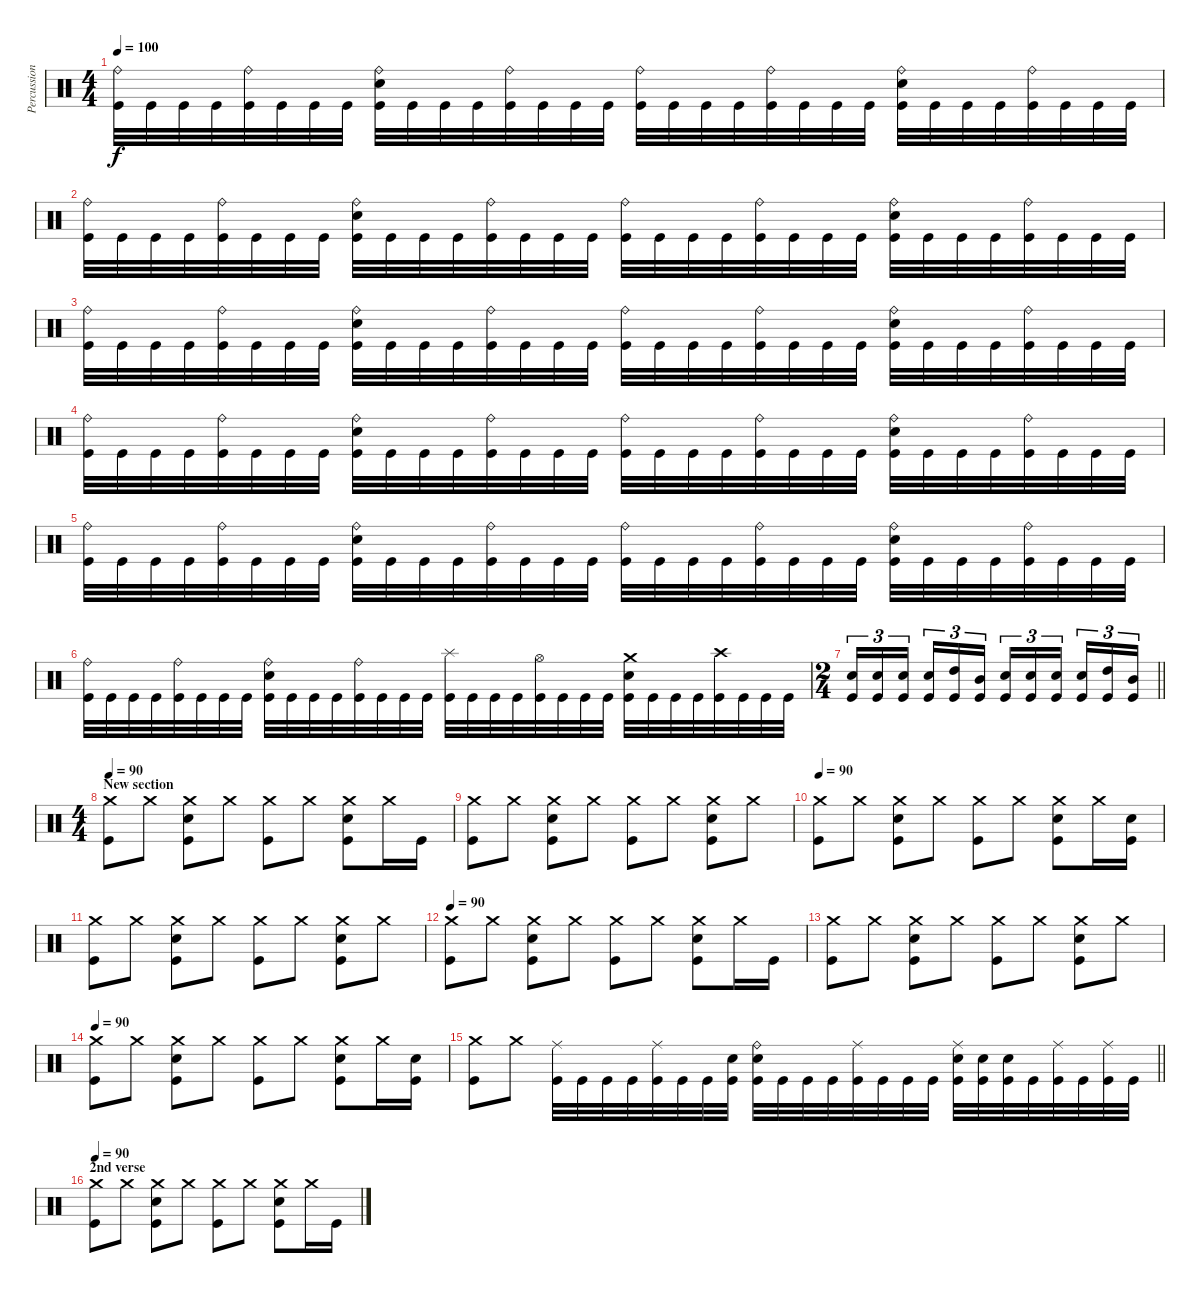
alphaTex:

\track ("Percussions" "Percussion") {instrument percussion}
\staff {score}
\articulation defaults
\ts (4 4)
\tempo 100
\clef neutral
\ks c
("Ride (bell)" "Kick (hit)").32{dy f} "Kick (hit)".32 "Kick (hit)".32 "Kick (hit)".32 ("Ride (bell)" "Kick (hit)").32 "Kick (hit)".32 "Kick (hit)".32 "Kick (hit)".32 ("Ride (bell)" "Electric Snare (hit)" "Kick (hit)").32 "Kick (hit)".32 "Kick (hit)".32 "Kick (hit)".32 ("Ride (bell)" "Kick (hit)").32 "Kick (hit)".32 "Kick (hit)".32 "Kick (hit)".32 ("Ride (bell)" "Kick (hit)").32 "Kick (hit)".32 "Kick (hit)".32 "Kick (hit)".32 ("Ride (bell)" "Kick (hit)").32 "Kick (hit)".32 "Kick (hit)".32 "Kick (hit)".32 ("Ride (bell)" "Electric Snare (hit)" "Kick (hit)").32 "Kick (hit)".32 "Kick (hit)".32 "Kick (hit)".32 ("Ride (bell)" "Kick (hit)").32 "Kick (hit)".32 "Kick (hit)".32 "Kick (hit)".32 |
("Ride (bell)" "Kick (hit)").32 "Kick (hit)".32 "Kick (hit)".32 "Kick (hit)".32 ("Ride (bell)" "Kick (hit)").32 "Kick (hit)".32 "Kick (hit)".32 "Kick (hit)".32 ("Ride (bell)" "Electric Snare (hit)" "Kick (hit)").32 "Kick (hit)".32 "Kick (hit)".32 "Kick (hit)".32 ("Ride (bell)" "Kick (hit)").32 "Kick (hit)".32 "Kick (hit)".32 "Kick (hit)".32 ("Ride (bell)" "Kick (hit)").32 "Kick (hit)".32 "Kick (hit)".32 "Kick (hit)".32 ("Ride (bell)" "Kick (hit)").32 "Kick (hit)".32 "Kick (hit)".32 "Kick (hit)".32 ("Ride (bell)" "Electric Snare (hit)" "Kick (hit)").32 "Kick (hit)".32 "Kick (hit)".32 "Kick (hit)".32 ("Ride (bell)" "Kick (hit)").32 "Kick (hit)".32 "Kick (hit)".32 "Kick (hit)".32 |
("Ride (bell)" "Kick (hit)").32 "Kick (hit)".32 "Kick (hit)".32 "Kick (hit)".32 ("Ride (bell)" "Kick (hit)").32 "Kick (hit)".32 "Kick (hit)".32 "Kick (hit)".32 ("Ride (bell)" "Electric Snare (hit)" "Kick (hit)").32 "Kick (hit)".32 "Kick (hit)".32 "Kick (hit)".32 ("Ride (bell)" "Kick (hit)").32 "Kick (hit)".32 "Kick (hit)".32 "Kick (hit)".32 ("Ride (bell)" "Kick (hit)").32 "Kick (hit)".32 "Kick (hit)".32 "Kick (hit)".32 ("Ride (bell)" "Kick (hit)").32 "Kick (hit)".32 "Kick (hit)".32 "Kick (hit)".32 ("Ride (bell)" "Electric Snare (hit)" "Kick (hit)").32 "Kick (hit)".32 "Kick (hit)".32 "Kick (hit)".32 ("Ride (bell)" "Kick (hit)").32 "Kick (hit)".32 "Kick (hit)".32 "Kick (hit)".32 |
("Ride (bell)" "Kick (hit)").32 "Kick (hit)".32 "Kick (hit)".32 "Kick (hit)".32 ("Ride (bell)" "Kick (hit)").32 "Kick (hit)".32 "Kick (hit)".32 "Kick (hit)".32 ("Ride (bell)" "Electric Snare (hit)" "Kick (hit)").32 "Kick (hit)".32 "Kick (hit)".32 "Kick (hit)".32 ("Ride (bell)" "Kick (hit)").32 "Kick (hit)".32 "Kick (hit)".32 "Kick (hit)".32 ("Ride (bell)" "Kick (hit)").32 "Kick (hit)".32 "Kick (hit)".32 "Kick (hit)".32 ("Ride (bell)" "Kick (hit)").32 "Kick (hit)".32 "Kick (hit)".32 "Kick (hit)".32 ("Ride (bell)" "Electric Snare (hit)" "Kick (hit)").32 "Kick (hit)".32 "Kick (hit)".32 "Kick (hit)".32 ("Ride (bell)" "Kick (hit)").32 "Kick (hit)".32 "Kick (hit)".32 "Kick (hit)".32 |
("Ride (bell)" "Kick (hit)").32 "Kick (hit)".32 "Kick (hit)".32 "Kick (hit)".32 ("Ride (bell)" "Kick (hit)").32 "Kick (hit)".32 "Kick (hit)".32 "Kick (hit)".32 ("Ride (bell)" "Electric Snare (hit)" "Kick (hit)").32 "Kick (hit)".32 "Kick (hit)".32 "Kick (hit)".32 ("Ride (bell)" "Kick (hit)").32 "Kick (hit)".32 "Kick (hit)".32 "Kick (hit)".32 ("Ride (bell)" "Kick (hit)").32 "Kick (hit)".32 "Kick (hit)".32 "Kick (hit)".32 ("Ride (bell)" "Kick (hit)").32 "Kick (hit)".32 "Kick (hit)".32 "Kick (hit)".32 ("Ride (bell)" "Electric Snare (hit)" "Kick (hit)").32 "Kick (hit)".32 "Kick (hit)".32 "Kick (hit)".32 ("Ride (bell)" "Kick (hit)").32 "Kick (hit)".32 "Kick (hit)".32 "Kick (hit)".32 |
("Ride (bell)" "Kick (hit)").32 "Kick (hit)".32 "Kick (hit)".32 "Kick (hit)".32 ("Ride (bell)" "Kick (hit)").32 "Kick (hit)".32 "Kick (hit)".32 "Kick (hit)".32 ("Ride (bell)" "Electric Snare (hit)" "Kick (hit)").32 "Kick (hit)".32 "Kick (hit)".32 "Kick (hit)".32 ("Ride (bell)" "Kick (hit)").32 "Kick (hit)".32 "Kick (hit)".32 "Kick (hit)".32 ("Splash (hit)" "Kick (hit)").32 "Kick (hit)".32 "Kick (hit)".32 "Kick (hit)".32 ("Hi-Hat (open)" "Kick (hit)").32 "Kick (hit)".32 "Kick (hit)".32 "Kick (hit)".32 ("Crash medium (hit)" "Electric Snare (hit)" "Kick (hit)").32 "Kick (hit)".32 "Kick (hit)".32 "Kick (hit)".32 ("Crash high (hit)" "Kick (hit)").32 "Kick (hit)".32 "Kick (hit)".32 "Kick (hit)".32 |
\ts (2 4)
\barLineRight lightlight
("Electric Snare (hit)" "Kick (hit)").16{tu (3 2)} ("Electric Snare (hit)" "Kick (hit)").16{tu (3 2)} ("Electric Snare (hit)" "Kick (hit)").16{tu (3 2) beam splitsecondary} ("Electric Snare (hit)" "Kick (hit)").16{tu (3 2)} ("High Tom (hit)" "Kick (hit)").16{tu (3 2)} ("Mid Tom (hit)" "Kick (hit)").16{tu (3 2)} ("Electric Snare (hit)" "Kick (hit)").16{tu (3 2)} ("Electric Snare (hit)" "Kick (hit)").16{tu (3 2)} ("Electric Snare (hit)" "Kick (hit)").16{tu (3 2) beam splitsecondary} ("Electric Snare (hit)" "Kick (hit)").16{tu (3 2)} ("High Tom (hit)" "Kick (hit)").16{tu (3 2)} ("Mid Tom (hit)" "Kick (hit)").16{tu (3 2)} |
\ts (4 4)
\section ("" "New section")
\tempo 90
("Crash medium (hit)" "Kick (hit)").8 "Crash medium (hit)".8 ("Crash medium (hit)" "Electric Snare (hit)" "Kick (hit)").8 "Crash medium (hit)".8 ("Crash medium (hit)" "Kick (hit)").8 "Crash medium (hit)".8 ("Crash medium (hit)" "Electric Snare (hit)" "Kick (hit)").8 "Crash medium (hit)".16 "Kick (hit)".16 |
("Crash medium (hit)" "Kick (hit)").8 "Crash medium (hit)".8 ("Crash medium (hit)" "Electric Snare (hit)" "Kick (hit)").8 "Crash medium (hit)".8 ("Crash medium (hit)" "Kick (hit)").8 "Crash medium (hit)".8 ("Crash medium (hit)" "Electric Snare (hit)" "Kick (hit)").8 "Crash medium (hit)".8 |
\tempo 90
("Crash medium (hit)" "Kick (hit)").8 "Crash medium (hit)".8 ("Crash medium (hit)" "Electric Snare (hit)" "Kick (hit)").8 "Crash medium (hit)".8 ("Crash medium (hit)" "Kick (hit)").8 "Crash medium (hit)".8 ("Crash medium (hit)" "Electric Snare (hit)" "Kick (hit)").8 "Crash medium (hit)".16 ("Electric Snare (hit)" "Kick (hit)").16 |
("Crash medium (hit)" "Kick (hit)").8 "Crash medium (hit)".8 ("Crash medium (hit)" "Electric Snare (hit)" "Kick (hit)").8 "Crash medium (hit)".8 ("Crash medium (hit)" "Kick (hit)").8 "Crash medium (hit)".8 ("Crash medium (hit)" "Electric Snare (hit)" "Kick (hit)").8 "Crash medium (hit)".8 |
\tempo 90
("Crash medium (hit)" "Kick (hit)").8 "Crash medium (hit)".8 ("Crash medium (hit)" "Electric Snare (hit)" "Kick (hit)").8 "Crash medium (hit)".8 ("Crash medium (hit)" "Kick (hit)").8 "Crash medium (hit)".8 ("Crash medium (hit)" "Electric Snare (hit)" "Kick (hit)").8 "Crash medium (hit)".16 "Kick (hit)".16 |
("Crash medium (hit)" "Kick (hit)").8 "Crash medium (hit)".8 ("Crash medium (hit)" "Electric Snare (hit)" "Kick (hit)").8 "Crash medium (hit)".8 ("Crash medium (hit)" "Kick (hit)").8 "Crash medium (hit)".8 ("Crash medium (hit)" "Electric Snare (hit)" "Kick (hit)").8 "Crash medium (hit)".8 |
\tempo 90
("Crash medium (hit)" "Kick (hit)").8 "Crash medium (hit)".8 ("Crash medium (hit)" "Electric Snare (hit)" "Kick (hit)").8 "Crash medium (hit)".8 ("Crash medium (hit)" "Kick (hit)").8 "Crash medium (hit)".8 ("Crash medium (hit)" "Electric Snare (hit)" "Kick (hit)").8 "Crash medium (hit)".16 ("Electric Snare (hit)" "Kick (hit)").16 |
\barLineRight lightlight
("Crash medium (hit)" "Kick (hit)").8 "Crash medium (hit)".8 ("Ride (middle)" "Kick (hit)").32 "Kick (hit)".32 "Kick (hit)".32 "Kick (hit)".32 ("Ride (middle)" "Kick (hit)").32 "Kick (hit)".32 "Kick (hit)".32 ("Electric Snare (hit)" "Kick (hit)").32 ("Ride (bell)" "Electric Snare (hit)" "Kick (hit)").32 "Kick (hit)".32 "Kick (hit)".32 "Kick (hit)".32 ("Ride (middle)" "Kick (hit)").32 "Kick (hit)".32 "Kick (hit)".32 "Kick (hit)".32 ("Ride (middle)" "Electric Snare (hit)" "Kick (hit)").32 ("Electric Snare (hit)" "Kick (hit)").32 ("Electric Snare (hit)" "Kick (hit)").32 "Kick (hit)".32 ("Ride (middle)" "Kick (hit)").32 "Kick (hit)".32 ("Ride (middle)" "Kick (hit)").32 "Kick (hit)".32 |
\section ("" "2nd verse")
\tempo 90
("Crash medium (hit)" "Kick (hit)").8 "Crash medium (hit)".8 ("Crash medium (hit)" "Electric Snare (hit)" "Kick (hit)").8 "Crash medium (hit)".8 ("Crash medium (hit)" "Kick (hit)").8 "Crash medium (hit)".8 ("Crash medium (hit)" "Electric Snare (hit)" "Kick (hit)").8 "Crash medium (hit)".16 "Kick (hit)".16
